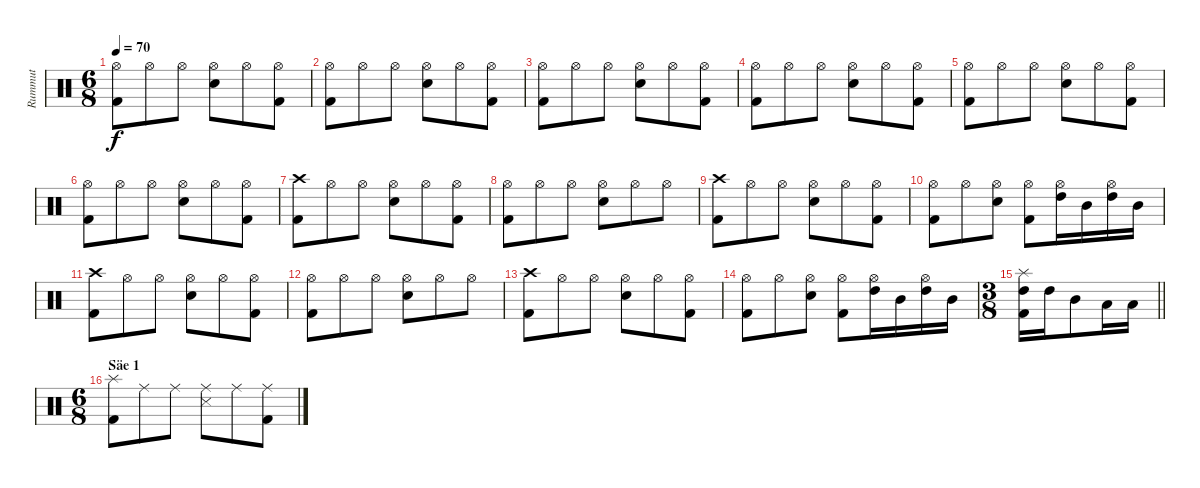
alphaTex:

\track ("Rummut" "Rummut") {instrument percussion}
\staff {score}
\articulation defaults
\ts (6 8)
\tempo 70
\clef neutral
\ks c
("Hi-Hat (open)" "Kick (hit) 2").8{dy f} "Hi-Hat (open)".8 "Hi-Hat (open)".8 ("Hi-Hat (open)" "Snare (hit) 2").8 "Hi-Hat (open)".8 ("Hi-Hat (open)" "Kick (hit) 2").8 |
("Hi-Hat (open)" "Kick (hit) 2").8 "Hi-Hat (open)".8 "Hi-Hat (open)".8 ("Hi-Hat (open)" "Snare (hit) 2").8 "Hi-Hat (open)".8 ("Hi-Hat (open)" "Kick (hit) 2").8 |
("Hi-Hat (open)" "Kick (hit) 2").8 "Hi-Hat (open)".8 "Hi-Hat (open)".8 ("Hi-Hat (open)" "Snare (hit) 2").8 "Hi-Hat (open)".8 ("Hi-Hat (open)" "Kick (hit) 2").8 |
("Hi-Hat (open)" "Kick (hit) 2").8 "Hi-Hat (open)".8 "Hi-Hat (open)".8 ("Hi-Hat (open)" "Snare (hit) 2").8 "Hi-Hat (open)".8 ("Hi-Hat (open)" "Kick (hit) 2").8 |
("Hi-Hat (open)" "Kick (hit) 2").8 "Hi-Hat (open)".8 "Hi-Hat (open)".8 ("Hi-Hat (open)" "Snare (hit) 2").8 "Hi-Hat (open)".8 ("Hi-Hat (open)" "Kick (hit) 2").8 |
("Hi-Hat (open)" "Kick (hit) 2").8 "Hi-Hat (open)".8 "Hi-Hat (open)".8 ("Hi-Hat (open)" "Snare (hit) 2").8 "Hi-Hat (open)".8 ("Hi-Hat (open)" "Kick (hit) 2").8 |
("Crash high (hit)" "Kick (hit) 2").8 "Hi-Hat (open)".8 "Hi-Hat (open)".8 ("Hi-Hat (open)" "Snare (hit) 2").8 "Hi-Hat (open)".8 ("Hi-Hat (open)" "Kick (hit) 2").8 |
("Hi-Hat (open)" "Kick (hit) 2").8 "Hi-Hat (open)".8 "Hi-Hat (open)".8 ("Hi-Hat (open)" "Snare (hit) 2").8 "Hi-Hat (open)".8 "Hi-Hat (open)".8 |
("Crash high (hit)" "Kick (hit) 2").8 "Hi-Hat (open)".8 "Hi-Hat (open)".8 ("Hi-Hat (open)" "Snare (hit) 2").8 "Hi-Hat (open)".8 ("Hi-Hat (open)" "Kick (hit) 2").8 |
("Hi-Hat (open)" "Kick (hit) 2").8 "Hi-Hat (open)".8 ("Hi-Hat (open)" "Snare (hit) 2").8 ("Hi-Hat (open)" "Kick (hit) 2").8 ("Hi-Hat (open)" "High Tom (hit)").16 "Mid Tom (hit)".16 ("Hi-Hat (open)" "High Tom (hit)").16 "Mid Tom (hit)".16 |
("Crash high (hit)" "Kick (hit) 2").8 "Hi-Hat (open)".8 "Hi-Hat (open)".8 ("Hi-Hat (open)" "Snare (hit) 2").8 "Hi-Hat (open)".8 ("Hi-Hat (open)" "Kick (hit) 2").8 |
("Hi-Hat (open)" "Kick (hit) 2").8 "Hi-Hat (open)".8 "Hi-Hat (open)".8 ("Hi-Hat (open)" "Snare (hit) 2").8 "Hi-Hat (open)".8 "Hi-Hat (open)".8 |
("Crash high (hit)" "Kick (hit) 2").8 "Hi-Hat (open)".8 "Hi-Hat (open)".8 ("Hi-Hat (open)" "Snare (hit) 2").8 "Hi-Hat (open)".8 ("Hi-Hat (open)" "Kick (hit) 2").8 |
("Hi-Hat (open)" "Kick (hit) 2").8 "Hi-Hat (open)".8 ("Hi-Hat (open)" "Snare (hit) 2").8 ("Hi-Hat (open)" "Kick (hit) 2").8 ("Hi-Hat (open)" "High Tom (hit)").16 "Mid Tom (hit)".16 ("Hi-Hat (open)" "High Tom (hit)").16 "Mid Tom (hit)".16 |
\ts (3 8)
\barLineRight lightlight
("Splash (hit)" "High Tom (hit)" "Kick (hit) 2").16 "High Tom (hit)".16 "Mid Tom (hit)".8 "Low Tom (hit)".16 "Low Tom (hit)".16 |
\ts (6 8)
\section ("" "Säe 1")
("Splash (hit)" "Kick (hit) 2").8 "Ride (middle)".8 "Ride (middle)".8 ("Ride (middle)" "Snare (side stick) 3").8 "Ride (middle)".8 ("Ride (middle)" "Kick (hit) 2").8
